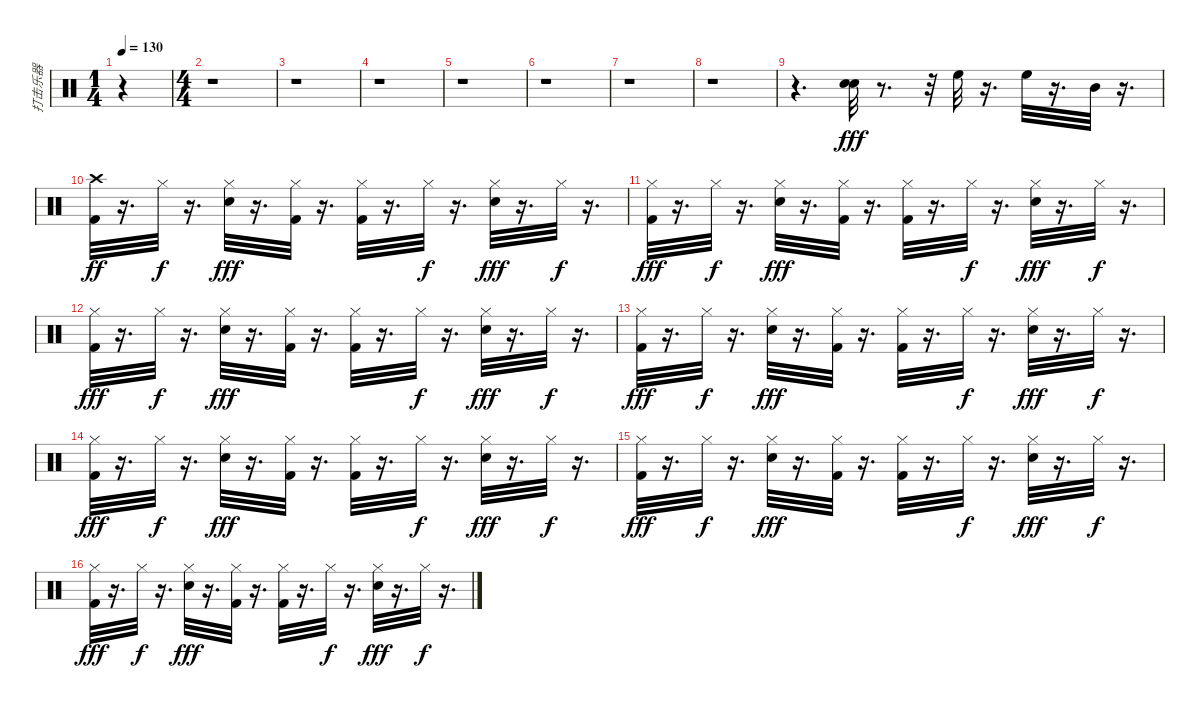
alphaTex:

\track ("打击乐器" "打击乐器") {instrument percussion}
\staff {score}
\articulation defaults
\ts (1 4)
\tempo 130
\clef neutral
\ks c
r.4{dy fff} |
\ts (4 4)
r.1 |
r.1 |
r.1 |
r.1 |
r.1 |
r.1 |
r.1 |
r.4{d} ("Electric Snare (hit)" "Electric Snare (hit)").32 r.8{d} r.32 "High Floor Tom (hit)".32 r.16{d} "High Floor Tom (hit)".32 r.16{d} "Mid Tom (hit)".32 r.16{d} |
("Kick (hit) 2" "Crash high (hit)").32{dy ff} r.16{d} "Hi-Hat (closed)".32{dy f} r.16{d} ("Hi-Hat (closed)" "Electric Snare (hit)").32{dy fff} r.16{d} ("Kick (hit) 2" "Hi-Hat (closed)").32 r.16{d} ("Kick (hit) 2" "Hi-Hat (closed)").32 r.16{d} "Hi-Hat (closed)".32{dy f} r.16{d} ("Hi-Hat (closed)" "Electric Snare (hit)").32{dy fff} r.16{d} "Hi-Hat (closed)".32{dy f} r.16{d} |
("Kick (hit) 2" "Hi-Hat (closed)").32{dy fff} r.16{d} "Hi-Hat (closed)".32{dy f} r.16{d} ("Hi-Hat (closed)" "Electric Snare (hit)").32{dy fff} r.16{d} ("Kick (hit) 2" "Hi-Hat (closed)").32 r.16{d} ("Kick (hit) 2" "Hi-Hat (closed)").32 r.16{d} "Hi-Hat (closed)".32{dy f} r.16{d} ("Hi-Hat (closed)" "Electric Snare (hit)").32{dy fff} r.16{d} "Hi-Hat (closed)".32{dy f} r.16{d} |
("Kick (hit) 2" "Hi-Hat (closed)").32{dy fff} r.16{d} "Hi-Hat (closed)".32{dy f} r.16{d} ("Hi-Hat (closed)" "Electric Snare (hit)").32{dy fff} r.16{d} ("Kick (hit) 2" "Hi-Hat (closed)").32 r.16{d} ("Kick (hit) 2" "Hi-Hat (closed)").32 r.16{d} "Hi-Hat (closed)".32{dy f} r.16{d} ("Hi-Hat (closed)" "Electric Snare (hit)").32{dy fff} r.16{d} "Hi-Hat (closed)".32{dy f} r.16{d} |
("Kick (hit) 2" "Hi-Hat (closed)").32{dy fff} r.16{d} "Hi-Hat (closed)".32{dy f} r.16{d} ("Hi-Hat (closed)" "Electric Snare (hit)").32{dy fff} r.16{d} ("Kick (hit) 2" "Hi-Hat (closed)").32 r.16{d} ("Kick (hit) 2" "Hi-Hat (closed)").32 r.16{d} "Hi-Hat (closed)".32{dy f} r.16{d} ("Hi-Hat (closed)" "Electric Snare (hit)").32{dy fff} r.16{d} "Hi-Hat (closed)".32{dy f} r.16{d} |
("Kick (hit) 2" "Hi-Hat (closed)").32{dy fff} r.16{d} "Hi-Hat (closed)".32{dy f} r.16{d} ("Hi-Hat (closed)" "Electric Snare (hit)").32{dy fff} r.16{d} ("Kick (hit) 2" "Hi-Hat (closed)").32 r.16{d} ("Kick (hit) 2" "Hi-Hat (closed)").32 r.16{d} "Hi-Hat (closed)".32{dy f} r.16{d} ("Hi-Hat (closed)" "Electric Snare (hit)").32{dy fff} r.16{d} "Hi-Hat (closed)".32{dy f} r.16{d} |
("Kick (hit) 2" "Hi-Hat (closed)").32{dy fff} r.16{d} "Hi-Hat (closed)".32{dy f} r.16{d} ("Hi-Hat (closed)" "Electric Snare (hit)").32{dy fff} r.16{d} ("Kick (hit) 2" "Hi-Hat (closed)").32 r.16{d} ("Kick (hit) 2" "Hi-Hat (closed)").32 r.16{d} "Hi-Hat (closed)".32{dy f} r.16{d} ("Hi-Hat (closed)" "Electric Snare (hit)").32{dy fff} r.16{d} "Hi-Hat (closed)".32{dy f} r.16{d} |
("Kick (hit) 2" "Hi-Hat (closed)").32{dy fff} r.16{d} "Hi-Hat (closed)".32{dy f} r.16{d} ("Hi-Hat (closed)" "Electric Snare (hit)").32{dy fff} r.16{d} ("Kick (hit) 2" "Hi-Hat (closed)").32 r.16{d} ("Kick (hit) 2" "Hi-Hat (closed)").32 r.16{d} "Hi-Hat (closed)".32{dy f} r.16{d} ("Hi-Hat (closed)" "Electric Snare (hit)").32{dy fff} r.16{d} "Hi-Hat (closed)".32{dy f} r.16{d}
